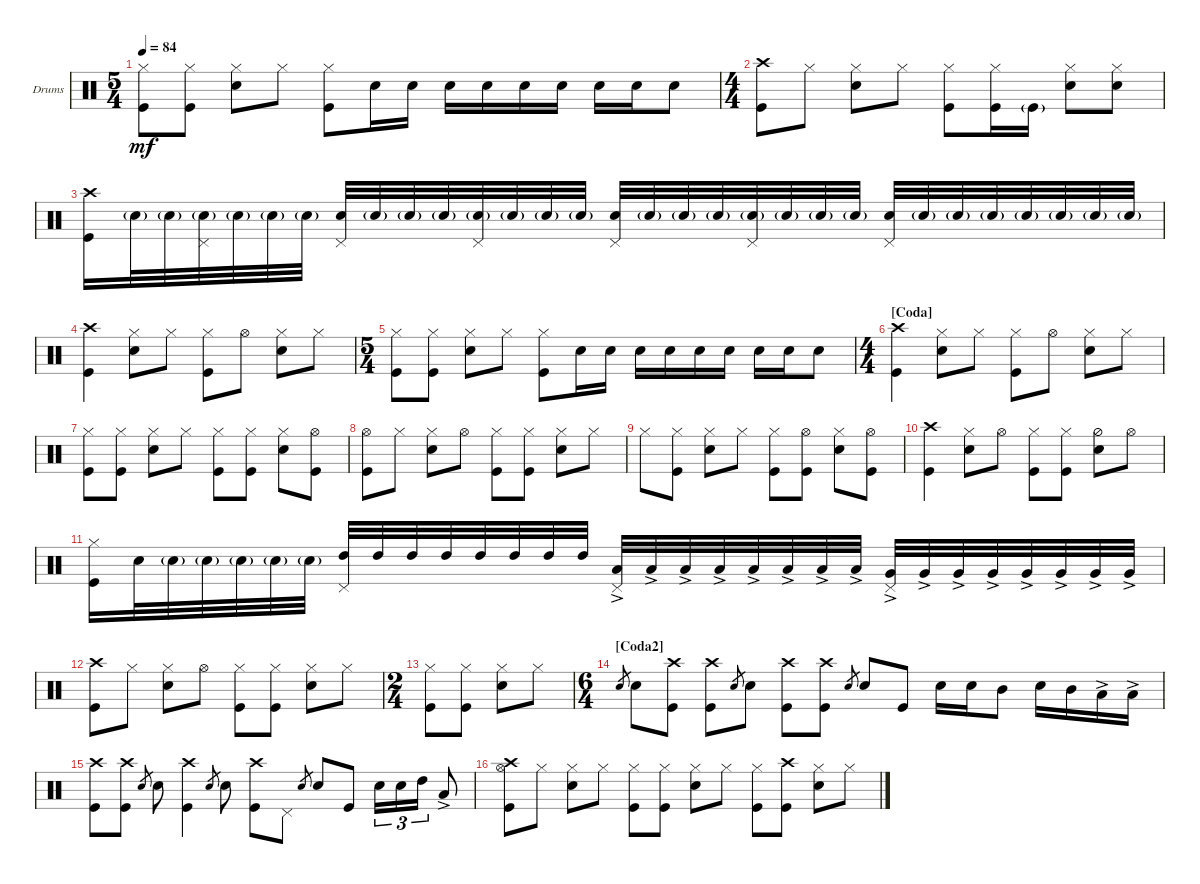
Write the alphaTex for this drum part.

\defaultSystemsLayout 4
\bracketExtendMode groupsimilarinstruments
\firstSystemTrackNameOrientation horizontal
\otherSystemsTrackNameOrientation horizontal
\track ("Drumkit" "Drums") {instrument percussion}
\staff {score}
\articulation defaults
\ts (5 4)
\tempo 84
\clef neutral
\ks aminor
("Hi-Hat (closed)" "Kick (hit)").8{dy mf} ("Hi-Hat (closed)" "Kick (hit)").8 ("Hi-Hat (closed)" "Snare (hit) 2").8 "Hi-Hat (closed)".8 ("Hi-Hat (closed)" "Kick (hit)").8 "Snare (hit) 2".16 "Snare (hit) 2".16 "Snare (hit) 2".16 "Snare (hit) 2".16 "Snare (hit) 2".16 "Snare (hit) 2".16 "Snare (hit) 2".16 "Snare (hit) 2".16 "Snare (hit) 2".8 |
\ts (4 4)
("Kick (hit)" "Crash high (hit)").8 "Hi-Hat (closed)".8 ("Hi-Hat (closed)" "Snare (hit) 2").8 "Hi-Hat (closed)".8 ("Hi-Hat (closed)" "Kick (hit)").8 ("Kick (hit)" "Hi-Hat (closed)").16 "Kick (hit)"{g}.16 ("Hi-Hat (closed)" "Snare (hit) 2").8 ("Hi-Hat (closed)" "Snare (hit) 2").8 |
("Kick (hit)" "Crash high (hit)").16 "Snare (hit) 2"{g}.32 "Snare (hit) 2"{g}.32 ("Snare (hit) 2"{g} "Pedal Hi-Hat (hit)").32 "Snare (hit) 2"{g}.32 "Snare (hit) 2"{g}.32 "Snare (hit) 2"{g}.32 ("Snare (hit) 2" "Pedal Hi-Hat (hit)").32 "Snare (hit) 2"{g}.32 "Snare (hit) 2"{g}.32 "Snare (hit) 2"{g}.32 ("Snare (hit) 2"{g} "Pedal Hi-Hat (hit)").32 "Snare (hit) 2"{g}.32 "Snare (hit) 2"{g}.32 "Snare (hit) 2"{g}.32 ("Snare (hit) 2" "Pedal Hi-Hat (hit)").32 "Snare (hit) 2"{g}.32 "Snare (hit) 2"{g}.32 "Snare (hit) 2"{g}.32 ("Snare (hit) 2"{g} "Pedal Hi-Hat (hit)").32 "Snare (hit) 2"{g}.32 "Snare (hit) 2"{g}.32 "Snare (hit) 2"{g}.32 ("Snare (hit) 2" "Pedal Hi-Hat (hit)").32 "Snare (hit) 2"{g}.32 "Snare (hit) 2"{g}.32 "Snare (hit) 2"{g}.32 "Snare (hit) 2"{g}.32 "Snare (hit) 2"{g}.32 "Snare (hit) 2"{g}.32 "Snare (hit) 2"{g}.32 |
("Kick (hit)" "Crash high (hit)").4 ("Hi-Hat (closed)" "Snare (hit) 2").8 "Hi-Hat (closed)".8 ("Hi-Hat (closed)" "Kick (hit)").8 "Hi-Hat (open)".8 ("Hi-Hat (closed)" "Snare (hit) 2").8 "Hi-Hat (closed)".8 |
\ts (5 4)
("Hi-Hat (closed)" "Kick (hit)").8 ("Hi-Hat (closed)" "Kick (hit)").8 ("Hi-Hat (closed)" "Snare (hit) 2").8 "Hi-Hat (closed)".8 ("Hi-Hat (closed)" "Kick (hit)").8 "Snare (hit) 2".16 "Snare (hit) 2".16 "Snare (hit) 2".16 "Snare (hit) 2".16 "Snare (hit) 2".16 "Snare (hit) 2".16 "Snare (hit) 2".16 "Snare (hit) 2".16 "Snare (hit) 2".8 |
\ts (4 4)
\section ("" "[Coda]")
("Crash high (hit)" "Kick (hit)").4 ("Hi-Hat (closed)" "Snare (hit) 2").8 "Hi-Hat (closed)".8 ("Hi-Hat (closed)" "Kick (hit)").8 "Hi-Hat (open)".8 ("Hi-Hat (closed)" "Snare (hit) 2").8 "Hi-Hat (closed)".8 |
("Hi-Hat (closed)" "Kick (hit)").8 ("Hi-Hat (closed)" "Kick (hit)").8 ("Hi-Hat (closed)" "Snare (hit) 2").8 "Hi-Hat (closed)".8 ("Hi-Hat (closed)" "Kick (hit)").8 ("Hi-Hat (closed)" "Kick (hit)").8 ("Hi-Hat (closed)" "Snare (hit) 2").8 ("Hi-Hat (open)" "Kick (hit)").8 |
("Hi-Hat (open)" "Kick (hit)").8 "Hi-Hat (closed)".8 ("Hi-Hat (closed)" "Snare (hit) 2").8 "Hi-Hat (open)".8 ("Hi-Hat (closed)" "Kick (hit)").8 ("Hi-Hat (closed)" "Kick (hit)").8 ("Hi-Hat (closed)" "Snare (hit) 2").8 "Hi-Hat (closed)".8 |
"Hi-Hat (closed)".8 ("Hi-Hat (closed)" "Kick (hit)").8 ("Hi-Hat (closed)" "Snare (hit) 2").8 "Hi-Hat (closed)".8 ("Hi-Hat (closed)" "Kick (hit)").8 ("Hi-Hat (open)" "Kick (hit)").8 ("Hi-Hat (closed)" "Snare (hit) 2").8 ("Hi-Hat (open)" "Kick (hit)").8 |
("Crash high (hit)" "Kick (hit)").4 ("Hi-Hat (closed)" "Snare (hit) 2").8 "Hi-Hat (open)".8 ("Hi-Hat (closed)" "Kick (hit)").8 ("Hi-Hat (closed)" "Kick (hit)").8 ("Hi-Hat (half)" "Snare (hit) 2").8 "Hi-Hat (open)".8 |
("Kick (hit)" "Hi-Hat (closed)").16 "Snare (hit) 2".32 "Snare (hit) 2"{g}.32 "Snare (hit) 2"{g}.32 "Snare (hit) 2"{g}.32 "Snare (hit) 2"{g}.32 "Snare (hit) 2"{g}.32 ("High Tom (hit)" "Pedal Hi-Hat (hit)").32 "High Tom (hit)".32 "High Tom (hit)".32 "High Tom (hit)".32 "High Tom (hit)".32 "High Tom (hit)".32 "High Tom (hit)".32 "High Tom (hit)".32 ("Low Tom (hit)"{ac} "Pedal Hi-Hat (hit)").32 "Low Tom (hit)"{ac}.32 "Low Tom (hit)"{ac}.32 "Low Tom (hit)"{ac}.32 "Low Tom (hit)"{ac}.32 "Low Tom (hit)"{ac}.32 "Low Tom (hit)"{ac}.32 "Low Tom (hit)"{ac}.32 ("Very Low Tom (hit)"{ac} "Pedal Hi-Hat (hit)").32 "Very Low Tom (hit)"{ac}.32 "Very Low Tom (hit)"{ac}.32 "Very Low Tom (hit)"{ac}.32 "Very Low Tom (hit)"{ac}.32 "Very Low Tom (hit)"{ac}.32 "Very Low Tom (hit)"{ac}.32 "Very Low Tom (hit)"{ac}.32 |
("Kick (hit)" "Crash high (hit)").8 "Hi-Hat (closed)".8 ("Hi-Hat (closed)" "Snare (hit) 2").8 "Hi-Hat (open)".8 ("Hi-Hat (closed)" "Kick (hit)").8 ("Hi-Hat (closed)" "Kick (hit)").8 ("Hi-Hat (closed)" "Snare (hit) 2").8 "Hi-Hat (closed)".8 |
\ts (2 4)
("Hi-Hat (closed)" "Kick (hit)").8 ("Hi-Hat (closed)" "Kick (hit)").8 ("Hi-Hat (closed)" "Snare (hit) 2").8 "Hi-Hat (closed)".8 |
\ts (6 4)
\section ("" "[Coda2]")
"Snare (hit) 2".8{gr} "Snare (hit) 2".8 ("Kick (hit)" "Crash high (hit)").8 ("Kick (hit)" "Crash high (hit)").8 "Snare (hit) 2".8{gr} "Snare (hit) 2".8 ("Kick (hit)" "Crash high (hit)").8 ("Kick (hit)" "Crash high (hit)").8 "Snare (hit) 2".8{gr} "Snare (hit) 2".8 "Kick (hit)".8 "Snare (hit) 2".16 "Snare (hit) 2".16 "Mid Tom (hit)".8 "Snare (hit) 2".16 "Mid Tom (hit)".16 "Low Tom (hit)"{ac}.16 "Low Tom (hit)"{ac}.16 |
("Kick (hit)" "Crash high (hit)").8 ("Kick (hit)" "Crash high (hit)").8 "Snare (hit) 2".8{gr} "Snare (hit) 2".8 ("Kick (hit)" "Crash high (hit)").4 "Snare (hit) 2".8{gr} "Snare (hit) 2".8 ("Kick (hit)" "Crash high (hit)").8 "Pedal Hi-Hat (hit)".8 "Snare (hit) 2".8{gr} "Snare (hit) 2".8 "Kick (hit)".8 "Snare (hit) 2".16{tu (3 2)} "Snare (hit) 2".16{tu (3 2)} "High Tom (hit)".16{tu (3 2)} "Low Tom (hit)"{ac}.8 |
("Hi-Hat (open)" "Kick (hit)" "Crash high (hit)").8 "Hi-Hat (closed)".8 ("Hi-Hat (closed)" "Snare (hit) 2").8 "Hi-Hat (closed)".8 ("Hi-Hat (closed)" "Kick (hit)").8 ("Hi-Hat (closed)" "Kick (hit)").8 ("Hi-Hat (closed)" "Snare (hit) 2").8 "Hi-Hat (closed)".8 ("Hi-Hat (closed)" "Kick (hit)").8 ("Crash high (hit)" "Kick (hit)").8 ("Hi-Hat (closed)" "Snare (hit) 2").8 "Hi-Hat (closed)".8
